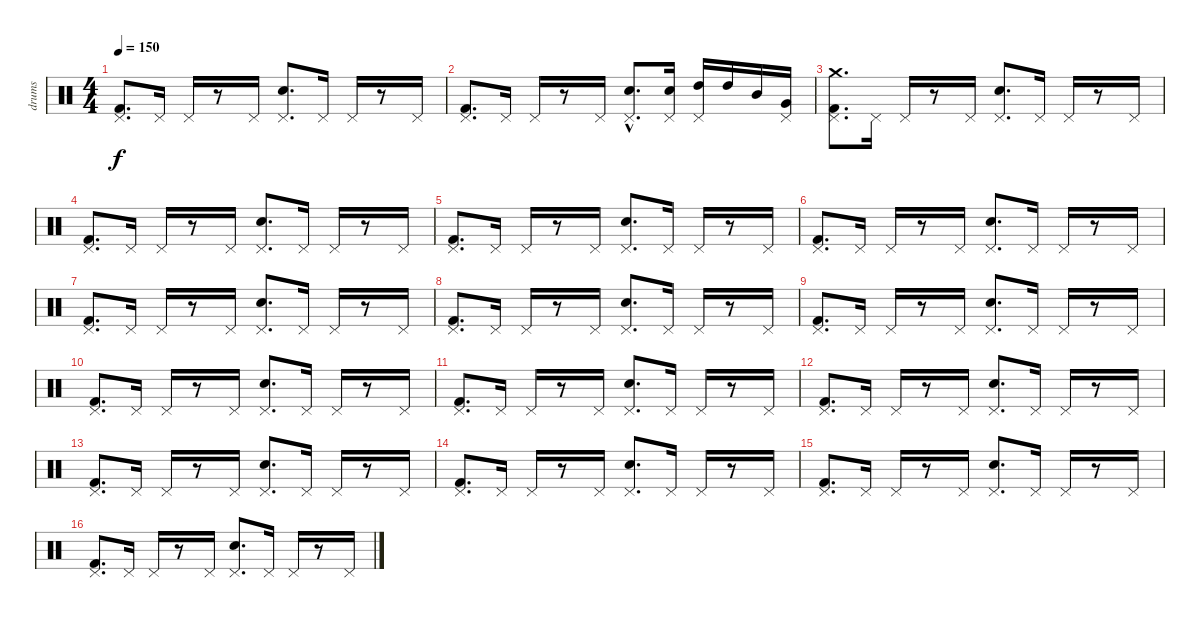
\track ("drums" "drums") {instrument percussion}
\staff {score}
\articulation defaults
\ts (4 4)
\tempo 150
\clef neutral
\ks c
("Kick (hit) 2" "Pedal Hi-Hat (hit)").8{d dy f} "Pedal Hi-Hat (hit)".16 "Pedal Hi-Hat (hit)".16 r.8 "Pedal Hi-Hat (hit)".16 ("Snare (hit) 2" "Pedal Hi-Hat (hit)").8{d} "Pedal Hi-Hat (hit)".16 "Pedal Hi-Hat (hit)".16 r.8 "Pedal Hi-Hat (hit)".16 |
("Kick (hit) 2" "Pedal Hi-Hat (hit)").8{d} "Pedal Hi-Hat (hit)".16 "Pedal Hi-Hat (hit)".16 r.8 "Pedal Hi-Hat (hit)".16 ("Snare (hit) 2"{hac} "Pedal Hi-Hat (hit)").8{d} ("Pedal Hi-Hat (hit)" "Snare (hit) 2").16 ("Pedal Hi-Hat (hit)" "High Tom (hit)").16 "High Tom (hit)".16 "Mid Tom (hit)".16 ("Pedal Hi-Hat (hit)" "Very Low Tom (hit)").16 |
("Crash medium (hit)" "Kick (hit) 2" "Pedal Hi-Hat (hit)").8{d} "Pedal Hi-Hat (hit)".16 "Pedal Hi-Hat (hit)".16 r.8 "Pedal Hi-Hat (hit)".16 ("Snare (hit) 2" "Pedal Hi-Hat (hit)").8{d} "Pedal Hi-Hat (hit)".16 "Pedal Hi-Hat (hit)".16 r.8 "Pedal Hi-Hat (hit)".16 |
("Kick (hit) 2" "Pedal Hi-Hat (hit)").8{d} "Pedal Hi-Hat (hit)".16 "Pedal Hi-Hat (hit)".16 r.8 "Pedal Hi-Hat (hit)".16 ("Snare (hit) 2" "Pedal Hi-Hat (hit)").8{d} "Pedal Hi-Hat (hit)".16 "Pedal Hi-Hat (hit)".16 r.8 "Pedal Hi-Hat (hit)".16 |
("Kick (hit) 2" "Pedal Hi-Hat (hit)").8{d} "Pedal Hi-Hat (hit)".16 "Pedal Hi-Hat (hit)".16 r.8 "Pedal Hi-Hat (hit)".16 ("Snare (hit) 2" "Pedal Hi-Hat (hit)").8{d} "Pedal Hi-Hat (hit)".16 "Pedal Hi-Hat (hit)".16 r.8 "Pedal Hi-Hat (hit)".16 |
("Kick (hit) 2" "Pedal Hi-Hat (hit)").8{d} "Pedal Hi-Hat (hit)".16 "Pedal Hi-Hat (hit)".16 r.8 "Pedal Hi-Hat (hit)".16 ("Snare (hit) 2" "Pedal Hi-Hat (hit)").8{d} "Pedal Hi-Hat (hit)".16 "Pedal Hi-Hat (hit)".16 r.8 "Pedal Hi-Hat (hit)".16 |
("Kick (hit) 2" "Pedal Hi-Hat (hit)").8{d} "Pedal Hi-Hat (hit)".16 "Pedal Hi-Hat (hit)".16 r.8 "Pedal Hi-Hat (hit)".16 ("Snare (hit) 2" "Pedal Hi-Hat (hit)").8{d} "Pedal Hi-Hat (hit)".16 "Pedal Hi-Hat (hit)".16 r.8 "Pedal Hi-Hat (hit)".16 |
("Kick (hit) 2" "Pedal Hi-Hat (hit)").8{d} "Pedal Hi-Hat (hit)".16 "Pedal Hi-Hat (hit)".16 r.8 "Pedal Hi-Hat (hit)".16 ("Snare (hit) 2" "Pedal Hi-Hat (hit)").8{d} "Pedal Hi-Hat (hit)".16 "Pedal Hi-Hat (hit)".16 r.8 "Pedal Hi-Hat (hit)".16 |
("Kick (hit) 2" "Pedal Hi-Hat (hit)").8{d} "Pedal Hi-Hat (hit)".16 "Pedal Hi-Hat (hit)".16 r.8 "Pedal Hi-Hat (hit)".16 ("Snare (hit) 2" "Pedal Hi-Hat (hit)").8{d} "Pedal Hi-Hat (hit)".16 "Pedal Hi-Hat (hit)".16 r.8 "Pedal Hi-Hat (hit)".16 |
("Kick (hit) 2" "Pedal Hi-Hat (hit)").8{d} "Pedal Hi-Hat (hit)".16 "Pedal Hi-Hat (hit)".16 r.8 "Pedal Hi-Hat (hit)".16 ("Snare (hit) 2" "Pedal Hi-Hat (hit)").8{d} "Pedal Hi-Hat (hit)".16 "Pedal Hi-Hat (hit)".16 r.8 "Pedal Hi-Hat (hit)".16 |
("Kick (hit) 2" "Pedal Hi-Hat (hit)").8{d} "Pedal Hi-Hat (hit)".16 "Pedal Hi-Hat (hit)".16 r.8 "Pedal Hi-Hat (hit)".16 ("Snare (hit) 2" "Pedal Hi-Hat (hit)").8{d} "Pedal Hi-Hat (hit)".16 "Pedal Hi-Hat (hit)".16 r.8 "Pedal Hi-Hat (hit)".16 |
("Kick (hit) 2" "Pedal Hi-Hat (hit)").8{d} "Pedal Hi-Hat (hit)".16 "Pedal Hi-Hat (hit)".16 r.8 "Pedal Hi-Hat (hit)".16 ("Snare (hit) 2" "Pedal Hi-Hat (hit)").8{d} "Pedal Hi-Hat (hit)".16 "Pedal Hi-Hat (hit)".16 r.8 "Pedal Hi-Hat (hit)".16 |
("Kick (hit) 2" "Pedal Hi-Hat (hit)").8{d} "Pedal Hi-Hat (hit)".16 "Pedal Hi-Hat (hit)".16 r.8 "Pedal Hi-Hat (hit)".16 ("Snare (hit) 2" "Pedal Hi-Hat (hit)").8{d} "Pedal Hi-Hat (hit)".16 "Pedal Hi-Hat (hit)".16 r.8 "Pedal Hi-Hat (hit)".16 |
("Kick (hit) 2" "Pedal Hi-Hat (hit)").8{d} "Pedal Hi-Hat (hit)".16 "Pedal Hi-Hat (hit)".16 r.8 "Pedal Hi-Hat (hit)".16 ("Snare (hit) 2" "Pedal Hi-Hat (hit)").8{d} "Pedal Hi-Hat (hit)".16 "Pedal Hi-Hat (hit)".16 r.8 "Pedal Hi-Hat (hit)".16 |
("Kick (hit) 2" "Pedal Hi-Hat (hit)").8{d} "Pedal Hi-Hat (hit)".16 "Pedal Hi-Hat (hit)".16 r.8 "Pedal Hi-Hat (hit)".16 ("Snare (hit) 2" "Pedal Hi-Hat (hit)").8{d} "Pedal Hi-Hat (hit)".16 "Pedal Hi-Hat (hit)".16 r.8 "Pedal Hi-Hat (hit)".16 |
("Kick (hit) 2" "Pedal Hi-Hat (hit)").8{d} "Pedal Hi-Hat (hit)".16 "Pedal Hi-Hat (hit)".16 r.8 "Pedal Hi-Hat (hit)".16 ("Snare (hit) 2" "Pedal Hi-Hat (hit)").8{d} "Pedal Hi-Hat (hit)".16 "Pedal Hi-Hat (hit)".16 r.8 "Pedal Hi-Hat (hit)".16
